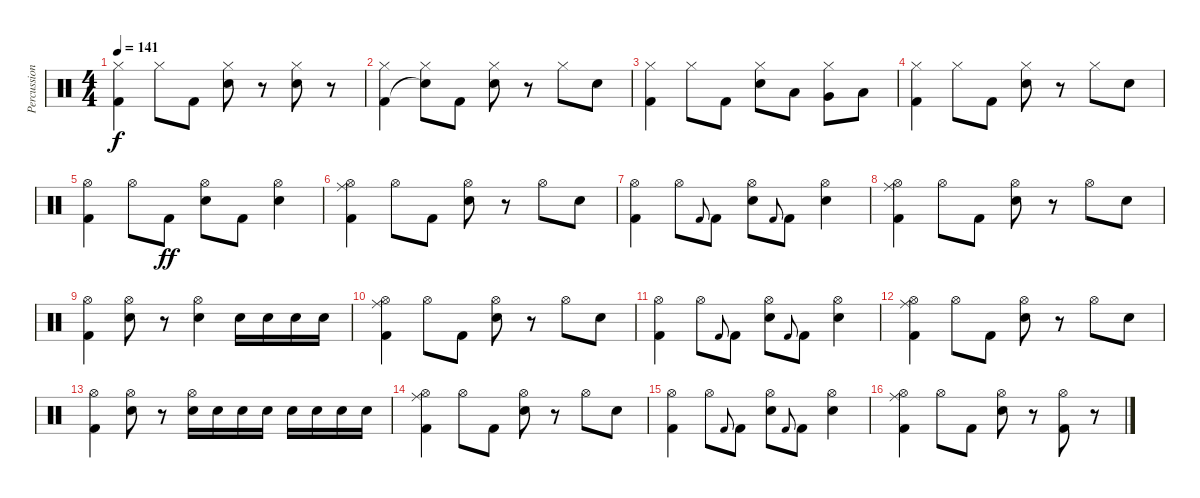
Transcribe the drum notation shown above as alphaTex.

\track ("Percussion" "Percussion") {instrument percussion}
\staff {score}
\articulation defaults
\ts (4 4)
\tempo 141
\clef neutral
\ks c
("Hi-Hat (closed)" "Kick (hit) 2").4{dy f} "Hi-Hat (closed)".8 "Kick (hit) 2".8 ("Hi-Hat (closed)" "Electric Snare (hit)").8 r.8 ("Hi-Hat (closed)" "Electric Snare (hit)").8 r.8 |
("Hi-Hat (closed)" "Kick (hit) 2").4 ("Hi-Hat (closed)" "Snare (hit)"{t}).8 "Kick (hit) 2".8 ("Hi-Hat (closed)" "Electric Snare (hit)").8 r.8 "Hi-Hat (closed)".8 "Electric Snare (hit)".8 |
("Hi-Hat (closed)" "Kick (hit) 2").4 "Hi-Hat (closed)".8 "Kick (hit) 2".8 ("Hi-Hat (closed)" "Electric Snare (hit)").8 "Low Tom (hit)".8 ("Hi-Hat (closed)" "Very Low Tom (hit)").8 "Low Floor Tom (hit)".8 |
("Hi-Hat (closed)" "Kick (hit) 2").4 "Hi-Hat (closed)".8 "Kick (hit) 2".8 ("Hi-Hat (closed)" "Electric Snare (hit)").8 r.8 "Hi-Hat (closed)".8 "Electric Snare (hit)".8 |
("Hi-Hat (open)" "Kick (hit) 2").4 "Hi-Hat (open)".8 "Kick (hit) 2".8{dy ff} ("Hi-Hat (open)" "Electric Snare (hit)").8 "Kick (hit) 2".8 ("Hi-Hat (open)" "Electric Snare (hit)").4 |
("Ride (middle)" "Hi-Hat (open)" "Kick (hit) 2").4 "Hi-Hat (open)".8 "Kick (hit) 2".8 ("Hi-Hat (open)" "Electric Snare (hit)").8 r.8 "Hi-Hat (open)".8 "Electric Snare (hit)".8 |
("Hi-Hat (open)" "Kick (hit) 2").4 "Hi-Hat (open)".8 "Kick (hit) 2".8{gr onbeat} "Kick (hit) 2".8 ("Hi-Hat (open)" "Electric Snare (hit)").8 "Kick (hit) 2".8{gr onbeat} "Kick (hit) 2".8 ("Hi-Hat (open)" "Electric Snare (hit)").4 |
("Ride (middle)" "Hi-Hat (open)" "Kick (hit) 2").4 "Hi-Hat (open)".8 "Kick (hit) 2".8 ("Hi-Hat (open)" "Electric Snare (hit)").8 r.8 "Hi-Hat (open)".8 "Electric Snare (hit)".8 |
("Hi-Hat (open)" "Kick (hit) 2").4 ("Hi-Hat (open)" "Electric Snare (hit)").8 r.8 ("Hi-Hat (open)" "Electric Snare (hit)").4 "Electric Snare (hit)".16 "Electric Snare (hit)".16 "Electric Snare (hit)".16 "Electric Snare (hit)".16 |
("Ride (middle)" "Hi-Hat (open)" "Kick (hit) 2").4 "Hi-Hat (open)".8 "Kick (hit) 2".8 ("Hi-Hat (open)" "Electric Snare (hit)").8 r.8 "Hi-Hat (open)".8 "Electric Snare (hit)".8 |
("Hi-Hat (open)" "Kick (hit) 2").4 "Hi-Hat (open)".8 "Kick (hit) 2".8{gr onbeat} "Kick (hit) 2".8 ("Hi-Hat (open)" "Electric Snare (hit)").8 "Kick (hit) 2".8{gr onbeat} "Kick (hit) 2".8 ("Hi-Hat (open)" "Electric Snare (hit)").4 |
("Ride (middle)" "Hi-Hat (open)" "Kick (hit) 2").4 "Hi-Hat (open)".8 "Kick (hit) 2".8 ("Hi-Hat (open)" "Electric Snare (hit)").8 r.8 "Hi-Hat (open)".8 "Electric Snare (hit)".8 |
("Hi-Hat (open)" "Kick (hit) 2").4 ("Hi-Hat (open)" "Electric Snare (hit)").8 r.8 ("Hi-Hat (open)" "Electric Snare (hit)").16 "Electric Snare (hit)".16 "Electric Snare (hit)".16 "Electric Snare (hit)".16 "Electric Snare (hit)".16 "Electric Snare (hit)".16 "Electric Snare (hit)".16 "Electric Snare (hit)".16 |
("Ride (middle)" "Hi-Hat (open)" "Kick (hit) 2").4 "Hi-Hat (open)".8 "Kick (hit) 2".8 ("Hi-Hat (open)" "Electric Snare (hit)").8 r.8 "Hi-Hat (open)".8 "Electric Snare (hit)".8 |
("Hi-Hat (open)" "Kick (hit) 2").4 "Hi-Hat (open)".8 "Kick (hit) 2".8{gr onbeat} "Kick (hit) 2".8 ("Hi-Hat (open)" "Electric Snare (hit)").8 "Kick (hit) 2".8{gr onbeat} "Kick (hit) 2".8 ("Hi-Hat (open)" "Electric Snare (hit)").4 |
("Ride (middle)" "Hi-Hat (open)" "Kick (hit) 2").4 "Hi-Hat (open)".8 "Kick (hit) 2".8 ("Hi-Hat (open)" "Electric Snare (hit)").8 r.8 ("Hi-Hat (open)" "Kick (hit) 2").8 r.8
